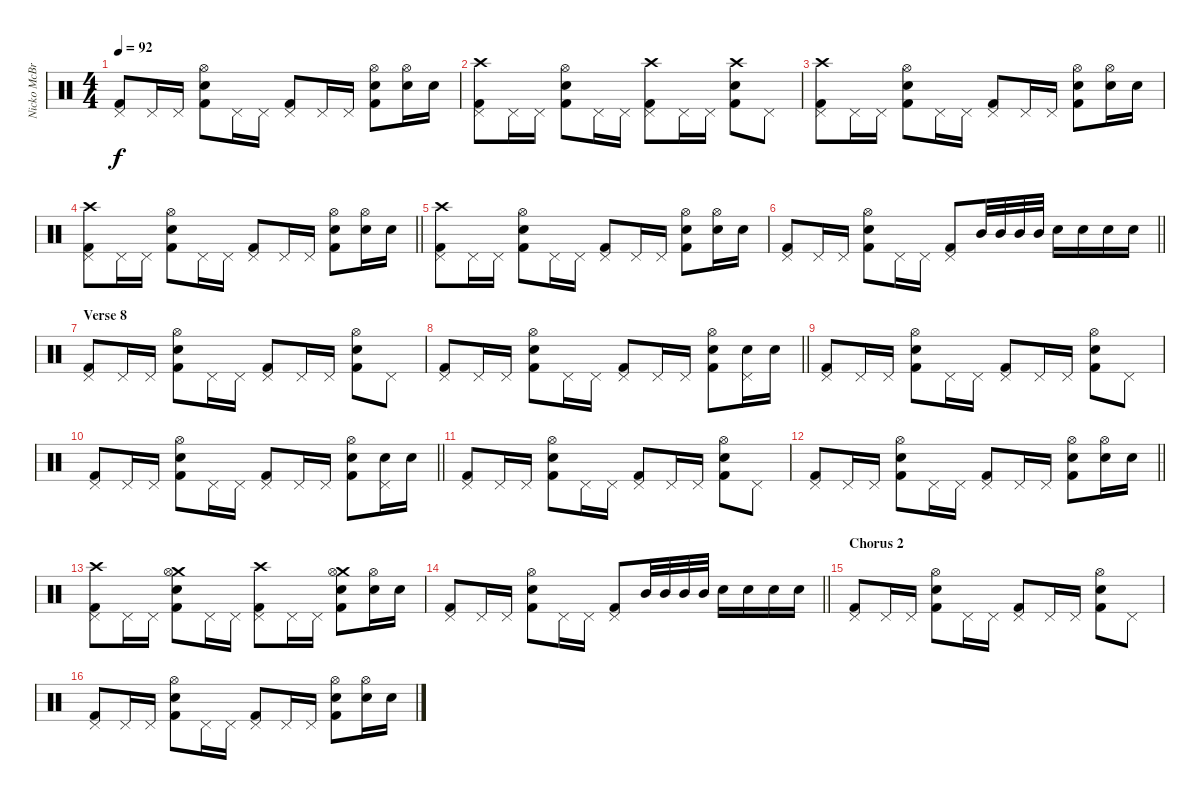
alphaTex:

\track ("Nicko McBrain" "Nicko McBr") {instrument percussion}
\staff {score}
\articulation defaults
\ts (4 4)
\tempo 92
\clef neutral
\ks c
("Pedal Hi-Hat (hit)" "Kick (hit) 2").8{dy f} "Pedal Hi-Hat (hit)".16 "Pedal Hi-Hat (hit)".16 ("Electric Snare (hit)" "Hi-Hat (open)" "Kick (hit) 2").8 "Pedal Hi-Hat (hit)".16 "Pedal Hi-Hat (hit)".16 ("Pedal Hi-Hat (hit)" "Kick (hit) 2").8 "Pedal Hi-Hat (hit)".16 "Pedal Hi-Hat (hit)".16 ("Electric Snare (hit)" "Hi-Hat (open)" "Kick (hit) 2").8 ("Hi-Hat (open)" "Electric Snare (hit)").16 "Electric Snare (hit)".16 |
("Pedal Hi-Hat (hit)" "Crash high (hit)" "Kick (hit) 2").8 "Pedal Hi-Hat (hit)".16 "Pedal Hi-Hat (hit)".16 ("Electric Snare (hit)" "Hi-Hat (open)" "Kick (hit) 2").8 "Pedal Hi-Hat (hit)".16 "Pedal Hi-Hat (hit)".16 ("Pedal Hi-Hat (hit)" "Crash high (hit)" "Kick (hit) 2").8 "Pedal Hi-Hat (hit)".16 "Pedal Hi-Hat (hit)".16 ("Electric Snare (hit)" "Crash high (hit)" "Kick (hit) 2").8 "Pedal Hi-Hat (hit)".8 |
("Crash high (hit)" "Pedal Hi-Hat (hit)" "Kick (hit) 2").8 "Pedal Hi-Hat (hit)".16 "Pedal Hi-Hat (hit)".16 ("Electric Snare (hit)" "Hi-Hat (open)" "Kick (hit) 2").8 "Pedal Hi-Hat (hit)".16 "Pedal Hi-Hat (hit)".16 ("Pedal Hi-Hat (hit)" "Kick (hit) 2").8 "Pedal Hi-Hat (hit)".16 "Pedal Hi-Hat (hit)".16 ("Electric Snare (hit)" "Hi-Hat (open)" "Kick (hit) 2").8 ("Hi-Hat (open)" "Electric Snare (hit)").16 "Electric Snare (hit)".16 |
\barLineRight lightlight
("Crash high (hit)" "Pedal Hi-Hat (hit)" "Kick (hit) 2").8 "Pedal Hi-Hat (hit)".16 "Pedal Hi-Hat (hit)".16 ("Electric Snare (hit)" "Hi-Hat (open)" "Kick (hit) 2").8 "Pedal Hi-Hat (hit)".16 "Pedal Hi-Hat (hit)".16 ("Pedal Hi-Hat (hit)" "Kick (hit) 2").8 "Pedal Hi-Hat (hit)".16 "Pedal Hi-Hat (hit)".16 ("Electric Snare (hit)" "Hi-Hat (open)" "Kick (hit) 2").8 ("Hi-Hat (open)" "Electric Snare (hit)").16 "Electric Snare (hit)".16 |
("Crash high (hit)" "Pedal Hi-Hat (hit)" "Kick (hit) 2").8 "Pedal Hi-Hat (hit)".16 "Pedal Hi-Hat (hit)".16 ("Electric Snare (hit)" "Hi-Hat (open)" "Kick (hit) 2").8 "Pedal Hi-Hat (hit)".16 "Pedal Hi-Hat (hit)".16 ("Pedal Hi-Hat (hit)" "Kick (hit) 2").8 "Pedal Hi-Hat (hit)".16 "Pedal Hi-Hat (hit)".16 ("Electric Snare (hit)" "Hi-Hat (open)" "Kick (hit) 2").8 ("Hi-Hat (open)" "Electric Snare (hit)").16 "Electric Snare (hit)".16 |
\barLineRight lightlight
("Pedal Hi-Hat (hit)" "Kick (hit) 2").8 "Pedal Hi-Hat (hit)".16 "Pedal Hi-Hat (hit)".16 ("Electric Snare (hit)" "Hi-Hat (open)" "Kick (hit) 2").8 "Pedal Hi-Hat (hit)".16 "Pedal Hi-Hat (hit)".16 ("Pedal Hi-Hat (hit)" "Kick (hit) 2").8 "Mid Tom (hit)".32 "Mid Tom (hit)".32 "Mid Tom (hit)".32 "Mid Tom (hit)".32 "Electric Snare (hit)".16 "Electric Snare (hit)".16 "Electric Snare (hit)".16 "Electric Snare (hit)".16 |
\section ("" "Verse 8")
("Pedal Hi-Hat (hit)" "Kick (hit) 2").8 "Pedal Hi-Hat (hit)".16 "Pedal Hi-Hat (hit)".16 ("Electric Snare (hit)" "Hi-Hat (open)" "Kick (hit) 2").8 "Pedal Hi-Hat (hit)".16 "Pedal Hi-Hat (hit)".16 ("Pedal Hi-Hat (hit)" "Kick (hit) 2").8 "Pedal Hi-Hat (hit)".16 "Pedal Hi-Hat (hit)".16 ("Electric Snare (hit)" "Hi-Hat (open)" "Kick (hit) 2").8 "Pedal Hi-Hat (hit)".8 |
\barLineRight lightlight
("Pedal Hi-Hat (hit)" "Kick (hit) 2").8 "Pedal Hi-Hat (hit)".16 "Pedal Hi-Hat (hit)".16 ("Electric Snare (hit)" "Hi-Hat (open)" "Kick (hit) 2").8 "Pedal Hi-Hat (hit)".16 "Pedal Hi-Hat (hit)".16 ("Pedal Hi-Hat (hit)" "Kick (hit) 2").8 "Pedal Hi-Hat (hit)".16 "Pedal Hi-Hat (hit)".16 ("Electric Snare (hit)" "Hi-Hat (open)" "Kick (hit) 2").8 ("Pedal Hi-Hat (hit)" "Electric Snare (hit)").16 "Electric Snare (hit)".16 |
("Pedal Hi-Hat (hit)" "Kick (hit) 2").8 "Pedal Hi-Hat (hit)".16 "Pedal Hi-Hat (hit)".16 ("Electric Snare (hit)" "Hi-Hat (open)" "Kick (hit) 2").8 "Pedal Hi-Hat (hit)".16 "Pedal Hi-Hat (hit)".16 ("Pedal Hi-Hat (hit)" "Kick (hit) 2").8 "Pedal Hi-Hat (hit)".16 "Pedal Hi-Hat (hit)".16 ("Electric Snare (hit)" "Hi-Hat (open)" "Kick (hit) 2").8 "Pedal Hi-Hat (hit)".8 |
\barLineRight lightlight
("Pedal Hi-Hat (hit)" "Kick (hit) 2").8 "Pedal Hi-Hat (hit)".16 "Pedal Hi-Hat (hit)".16 ("Electric Snare (hit)" "Hi-Hat (open)" "Kick (hit) 2").8 "Pedal Hi-Hat (hit)".16 "Pedal Hi-Hat (hit)".16 ("Pedal Hi-Hat (hit)" "Kick (hit) 2").8 "Pedal Hi-Hat (hit)".16 "Pedal Hi-Hat (hit)".16 ("Electric Snare (hit)" "Hi-Hat (open)" "Kick (hit) 2").8 ("Pedal Hi-Hat (hit)" "Electric Snare (hit)").16 "Electric Snare (hit)".16 |
("Pedal Hi-Hat (hit)" "Kick (hit) 2").8 "Pedal Hi-Hat (hit)".16 "Pedal Hi-Hat (hit)".16 ("Electric Snare (hit)" "Hi-Hat (open)" "Kick (hit) 2").8 "Pedal Hi-Hat (hit)".16 "Pedal Hi-Hat (hit)".16 ("Pedal Hi-Hat (hit)" "Kick (hit) 2").8 "Pedal Hi-Hat (hit)".16 "Pedal Hi-Hat (hit)".16 ("Electric Snare (hit)" "Hi-Hat (open)" "Kick (hit) 2").8 "Pedal Hi-Hat (hit)".8 |
\barLineRight lightlight
("Pedal Hi-Hat (hit)" "Kick (hit) 2").8 "Pedal Hi-Hat (hit)".16 "Pedal Hi-Hat (hit)".16 ("Electric Snare (hit)" "Hi-Hat (open)" "Kick (hit) 2").8 "Pedal Hi-Hat (hit)".16 "Pedal Hi-Hat (hit)".16 ("Pedal Hi-Hat (hit)" "Kick (hit) 2").8 "Pedal Hi-Hat (hit)".16 "Pedal Hi-Hat (hit)".16 ("Electric Snare (hit)" "Hi-Hat (open)" "Kick (hit) 2").8 ("Hi-Hat (open)" "Electric Snare (hit)").16 "Electric Snare (hit)".16 |
("Crash high (hit)" "Pedal Hi-Hat (hit)" "Kick (hit) 2").8 "Pedal Hi-Hat (hit)".16 "Pedal Hi-Hat (hit)".16 ("Crash medium (hit)" "Electric Snare (hit)" "Hi-Hat (open)" "Kick (hit) 2").8 "Pedal Hi-Hat (hit)".16 "Pedal Hi-Hat (hit)".16 ("Crash high (hit)" "Pedal Hi-Hat (hit)" "Kick (hit) 2").8 "Pedal Hi-Hat (hit)".16 "Pedal Hi-Hat (hit)".16 ("Crash medium (hit)" "Electric Snare (hit)" "Hi-Hat (open)" "Kick (hit) 2").8 ("Hi-Hat (open)" "Electric Snare (hit)").16 "Electric Snare (hit)".16 |
\barLineRight lightlight
("Pedal Hi-Hat (hit)" "Kick (hit) 2").8 "Pedal Hi-Hat (hit)".16 "Pedal Hi-Hat (hit)".16 ("Electric Snare (hit)" "Hi-Hat (open)" "Kick (hit) 2").8 "Pedal Hi-Hat (hit)".16 "Pedal Hi-Hat (hit)".16 ("Pedal Hi-Hat (hit)" "Kick (hit) 2").8 "Mid Tom (hit)".32 "Mid Tom (hit)".32 "Mid Tom (hit)".32 "Mid Tom (hit)".32 "Electric Snare (hit)".16 "Electric Snare (hit)".16 "Electric Snare (hit)".16 "Electric Snare (hit)".16 |
\section ("" "Chorus 2")
("Pedal Hi-Hat (hit)" "Kick (hit) 2").8 "Pedal Hi-Hat (hit)".16 "Pedal Hi-Hat (hit)".16 ("Electric Snare (hit)" "Hi-Hat (open)" "Kick (hit) 2").8 "Pedal Hi-Hat (hit)".16 "Pedal Hi-Hat (hit)".16 ("Pedal Hi-Hat (hit)" "Kick (hit) 2").8 "Pedal Hi-Hat (hit)".16 "Pedal Hi-Hat (hit)".16 ("Electric Snare (hit)" "Hi-Hat (open)" "Kick (hit) 2").8 "Pedal Hi-Hat (hit)".8 |
("Pedal Hi-Hat (hit)" "Kick (hit) 2").8 "Pedal Hi-Hat (hit)".16 "Pedal Hi-Hat (hit)".16 ("Electric Snare (hit)" "Hi-Hat (open)" "Kick (hit) 2").8 "Pedal Hi-Hat (hit)".16 "Pedal Hi-Hat (hit)".16 ("Pedal Hi-Hat (hit)" "Kick (hit) 2").8 "Pedal Hi-Hat (hit)".16 "Pedal Hi-Hat (hit)".16 ("Electric Snare (hit)" "Hi-Hat (open)" "Kick (hit) 2").8 ("Hi-Hat (open)" "Electric Snare (hit)").16 "Electric Snare (hit)".16
